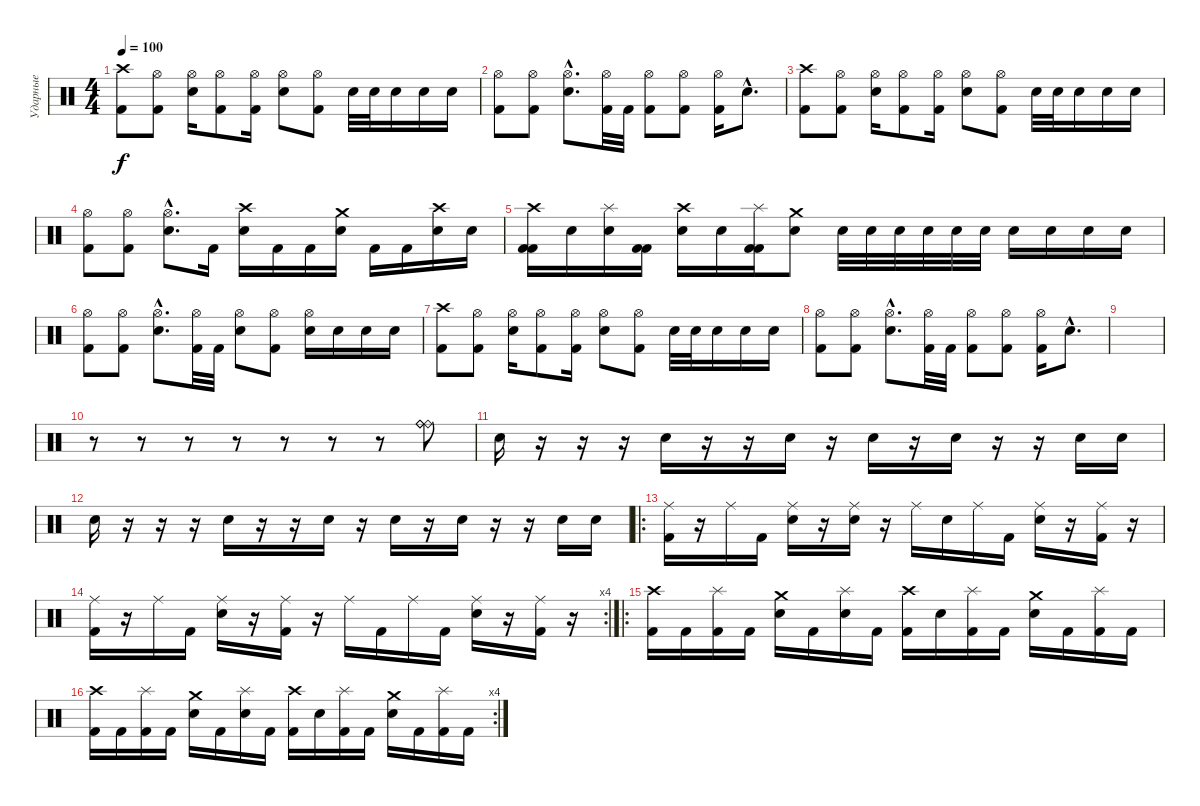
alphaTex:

\track ("Ударные" "Ударные") {instrument percussion}
\staff {score}
\articulation defaults
\ts (4 4)
\tempo 100
\clef neutral
\ks c
("Crash high (hit)" "Kick (hit) 2").8{dy f} ("Hi-Hat (open)" "Kick (hit) 2").8 ("Hi-Hat (open)" "Electric Snare (hit)").16 ("Hi-Hat (open)" "Kick (hit) 2").8 ("Hi-Hat (open)" "Kick (hit) 2").16 ("Hi-Hat (open)" "Electric Snare (hit)").8 ("Hi-Hat (open)" "Kick (hit) 2").8 "Electric Snare (hit)".32 "Electric Snare (hit)".32 "Electric Snare (hit)".16 "Electric Snare (hit)".16 "Electric Snare (hit)".16 |
("Hi-Hat (open)" "Kick (hit) 2").8 ("Hi-Hat (open)" "Kick (hit) 2").8 ("Hi-Hat (open)"{hac} "Electric Snare (hit)"{hac}).8{d} ("Hi-Hat (open)" "Kick (hit) 2").32 "Kick (hit) 2".32 ("Hi-Hat (open)" "Kick (hit) 2").8 ("Hi-Hat (open)" "Kick (hit) 2").8 ("Hi-Hat (open)" "Kick (hit) 2").16 "Electric Snare (hit)"{hac}.8{d} |
("Crash high (hit)" "Kick (hit) 2").8 ("Hi-Hat (open)" "Kick (hit) 2").8 ("Hi-Hat (open)" "Electric Snare (hit)").16 ("Hi-Hat (open)" "Kick (hit) 2").8 ("Hi-Hat (open)" "Kick (hit) 2").16 ("Hi-Hat (open)" "Electric Snare (hit)").8 ("Hi-Hat (open)" "Kick (hit) 2").8 "Electric Snare (hit)".32 "Electric Snare (hit)".32 "Electric Snare (hit)".16 "Electric Snare (hit)".16 "Electric Snare (hit)".16 |
("Hi-Hat (open)" "Kick (hit) 2").8 ("Hi-Hat (open)" "Kick (hit) 2").8 ("Hi-Hat (open)"{hac} "Electric Snare (hit)"{hac}).8{d} "Kick (hit) 2".16 ("Crash high (hit)" "Electric Snare (hit)").16 "Kick (hit) 2".16 "Kick (hit) 2".16 ("Crash medium (hit)" "Electric Snare (hit)").16 "Kick (hit) 2".16 "Kick (hit) 2".16 ("Crash high (hit)" "Electric Snare (hit)").16 "Electric Snare (hit)".16 |
("Crash high (hit)" "Kick (hit) 2" "Kick (hit) 2").16 "Electric Snare (hit)".16 ("Splash (hit)" "Electric Snare (hit)").16 ("Kick (hit) 2" "Kick (hit) 2").16 ("Crash high (hit)" "Electric Snare (hit)").16 "Electric Snare (hit)".16 ("Splash (hit)" "Kick (hit) 2" "Kick (hit) 2").16 ("Crash medium (hit)" "Electric Snare (hit)").8 "Electric Snare (hit)".32 "Electric Snare (hit)".32 "Electric Snare (hit)".32 "Electric Snare (hit)".32 "Electric Snare (hit)".32 "Electric Snare (hit)".32 "Electric Snare (hit)".16 "Electric Snare (hit)".16 "Electric Snare (hit)".16 "Electric Snare (hit)".16 |
("Hi-Hat (open)" "Kick (hit) 2").8 ("Hi-Hat (open)" "Kick (hit) 2").8 ("Hi-Hat (open)"{hac} "Electric Snare (hit)"{hac}).8{d} ("Hi-Hat (open)" "Kick (hit) 2").32 "Kick (hit) 2".32 ("Hi-Hat (open)" "Electric Snare (hit)").8 ("Hi-Hat (open)" "Kick (hit) 2").8 ("Hi-Hat (open)" "Electric Snare (hit)").16 "Electric Snare (hit)".16 "Electric Snare (hit)".16 "Electric Snare (hit)".16 |
("Crash high (hit)" "Kick (hit) 2").8 ("Hi-Hat (open)" "Kick (hit) 2").8 ("Hi-Hat (open)" "Electric Snare (hit)").16 ("Hi-Hat (open)" "Kick (hit) 2").8 ("Hi-Hat (open)" "Kick (hit) 2").16 ("Hi-Hat (open)" "Electric Snare (hit)").8 ("Hi-Hat (open)" "Kick (hit) 2").8 "Electric Snare (hit)".32 "Electric Snare (hit)".32 "Electric Snare (hit)".16 "Electric Snare (hit)".16 "Electric Snare (hit)".16 |
("Hi-Hat (open)" "Kick (hit) 2").8 ("Hi-Hat (open)" "Kick (hit) 2").8 ("Hi-Hat (open)"{hac} "Electric Snare (hit)"{hac}).8{d} ("Hi-Hat (open)" "Kick (hit) 2").32 "Kick (hit) 2".32 ("Hi-Hat (open)" "Kick (hit) 2").8 ("Hi-Hat (open)" "Kick (hit) 2").8 ("Hi-Hat (open)" "Kick (hit) 2").16 "Electric Snare (hit)"{hac}.8{d} |
|
r.8 r.8 r.8 r.8 r.8 r.8 r.8 ("Ride (bell)" "Ride (bell)" "Ride (bell)").8 |
"Electric Snare (hit)".16 r.16 r.16 r.16 "Electric Snare (hit)".16 r.16 r.16 "Electric Snare (hit)".16 r.16 "Electric Snare (hit)".16 r.16 "Electric Snare (hit)".16 r.16 r.16 "Electric Snare (hit)".16 "Electric Snare (hit)".16 |
"Electric Snare (hit)".16 r.16 r.16 r.16 "Electric Snare (hit)".16 r.16 r.16 "Electric Snare (hit)".16 r.16 "Electric Snare (hit)".16 r.16 "Electric Snare (hit)".16 r.16 r.16 "Electric Snare (hit)".16 "Electric Snare (hit)".16 |
\ro
("Ride (middle)" "Kick (hit) 2").16 r.16 "Ride (middle)".16 "Kick (hit) 2".16 ("Ride (middle)" "Electric Snare (hit)").16 r.16 ("Ride (middle)" "Electric Snare (hit)").16 r.16 "Ride (middle)".16 "Electric Snare (hit)".16 "Ride (middle)".16 "Kick (hit) 2".16 ("Ride (middle)" "Electric Snare (hit)").16 r.16 ("Ride (middle)" "Kick (hit) 2").16 r.16 |
\rc 4
("Ride (middle)" "Kick (hit) 2").16 r.16 "Ride (middle)".16 "Kick (hit) 2".16 ("Ride (middle)" "Electric Snare (hit)").16 r.16 ("Ride (middle)" "Kick (hit) 2").16 r.16 "Ride (middle)".16 "Kick (hit) 2".16 "Ride (middle)".16 "Kick (hit) 2".16 ("Ride (middle)" "Electric Snare (hit)").16 r.16 ("Ride (middle)" "Kick (hit) 2").16 r.16 |
\ro
("Crash high (hit)" "Kick (hit) 2").16 "Kick (hit) 2".16 ("Splash (hit)" "Kick (hit) 2").16 "Kick (hit) 2".16 ("Crash medium (hit)" "Electric Snare (hit)").16 "Kick (hit) 2".16 ("Splash (hit)" "Electric Snare (hit)").16 "Kick (hit) 2".16 ("Crash high (hit)" "Kick (hit) 2").16 "Electric Snare (hit)".16 ("Splash (hit)" "Kick (hit) 2").16 "Kick (hit) 2".16 ("Crash medium (hit)" "Electric Snare (hit)").16 "Kick (hit) 2".16 ("Splash (hit)" "Kick (hit) 2").16 "Kick (hit) 2".16 |
\rc 4
("Crash high (hit)" "Kick (hit) 2").16 "Kick (hit) 2".16 ("Splash (hit)" "Kick (hit) 2").16 "Kick (hit) 2".16 ("Crash medium (hit)" "Electric Snare (hit)").16 "Kick (hit) 2".16 ("Splash (hit)" "Electric Snare (hit)").16 "Kick (hit) 2".16 ("Crash high (hit)" "Kick (hit) 2").16 "Electric Snare (hit)".16 ("Splash (hit)" "Kick (hit) 2").16 "Kick (hit) 2".16 ("Crash medium (hit)" "Electric Snare (hit)").16 "Kick (hit) 2".16 ("Splash (hit)" "Kick (hit) 2").16 "Kick (hit) 2".16
